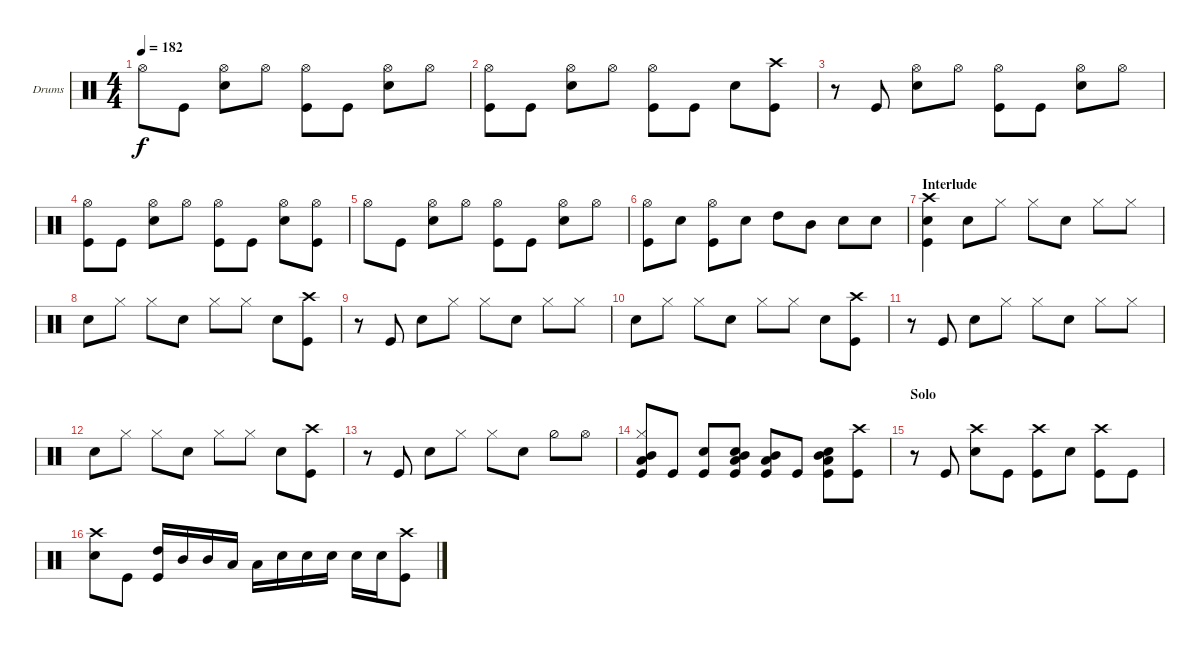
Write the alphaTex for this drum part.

\defaultSystemsLayout 4
\bracketExtendMode groupsimilarinstruments
\firstSystemTrackNameOrientation horizontal
\otherSystemsTrackNameOrientation horizontal
\track ("Drumkit" "Drums") {instrument percussion}
\staff {score}
\articulation defaults
\ts (4 4)
\tempo 182
\clef neutral
\ks c "Hi-Hat (open)".8{dy f} "Kick (hit)".8
("Snare (hit) 2" "Hi-Hat (open)").8 "Hi-Hat (open)".8 ("Kick (hit)" "Hi-Hat (open)").8 "Kick (hit)".8 ("Snare (hit) 2" "Hi-Hat (open)").8 "Hi-Hat (open)".8 |
("Kick (hit)" "Hi-Hat (open)").8 "Kick (hit)".8 ("Snare (hit) 2" "Hi-Hat (open)").8 "Hi-Hat (open)".8 ("Kick (hit)" "Hi-Hat (open)").8 "Kick (hit)".8 "Snare (hit) 2".8 ("Kick (hit)" "Crash high (hit)").8 |
r.8 "Kick (hit)".8 ("Snare (hit) 2" "Hi-Hat (open)").8 "Hi-Hat (open)".8 ("Kick (hit)" "Hi-Hat (open)").8 "Kick (hit)".8 ("Snare (hit) 2" "Hi-Hat (open)").8 "Hi-Hat (open)".8 |
("Kick (hit)" "Hi-Hat (open)").8 "Kick (hit)".8 ("Snare (hit) 2" "Hi-Hat (open)").8 "Hi-Hat (open)".8 ("Kick (hit)" "Hi-Hat (open)").8 "Kick (hit)".8 ("Snare (hit) 2" "Hi-Hat (open)").8 ("Kick (hit)" "Hi-Hat (open)").8 |
"Hi-Hat (open)".8 "Kick (hit)".8 ("Snare (hit) 2" "Hi-Hat (open)").8 "Hi-Hat (open)".8 ("Kick (hit)" "Hi-Hat (open)").8 "Kick (hit)".8 ("Snare (hit) 2" "Hi-Hat (open)").8 "Hi-Hat (open)".8 |
("Kick (hit)" "Hi-Hat (open)").8 "Snare (hit) 2".8 ("Kick (hit)" "Hi-Hat (open)").8 "Snare (hit) 2".8 "High Tom (hit)".8 "Mid Tom (hit)".8 "Snare (hit) 2".8 "Snare (hit) 2".8 |
\section ("" "Interlude")
("Kick (hit)" "Snare (hit) 2" "Crash high (hit)").4 "Snare (hit) 2".8 "Hi-Hat (closed)".8 "Hi-Hat (closed)".8 "Snare (hit) 2".8 "Hi-Hat (closed)".8 "Hi-Hat (closed)".8 |
"Snare (hit) 2".8 "Hi-Hat (closed)".8 "Hi-Hat (closed)".8 "Snare (hit) 2".8 "Hi-Hat (closed)".8 "Hi-Hat (closed)".8 "Snare (hit) 2".8 ("Kick (hit)" "Crash high (hit)").8 |
r.8 "Kick (hit)".8 "Snare (hit) 2".8 "Hi-Hat (closed)".8 "Hi-Hat (closed)".8 "Snare (hit) 2".8 "Hi-Hat (closed)".8 "Hi-Hat (closed)".8 |
"Snare (hit) 2".8 "Hi-Hat (closed)".8 "Hi-Hat (closed)".8 "Snare (hit) 2".8 "Hi-Hat (closed)".8 "Hi-Hat (closed)".8 "Snare (hit) 2".8 ("Kick (hit)" "Crash high (hit)").8 |
r.8 "Kick (hit)".8 "Snare (hit) 2".8 "Hi-Hat (closed)".8 "Hi-Hat (closed)".8 "Snare (hit) 2".8 "Hi-Hat (closed)".8 "Hi-Hat (closed)".8 |
"Snare (hit) 2".8 "Hi-Hat (closed)".8 "Hi-Hat (closed)".8 "Snare (hit) 2".8 "Hi-Hat (closed)".8 "Hi-Hat (closed)".8 "Snare (hit) 2".8 ("Kick (hit)" "Crash high (hit)").8 |
r.8 "Kick (hit)".8 "Snare (hit) 2".8 "Hi-Hat (closed)".8 "Hi-Hat (closed)".8 "Snare (hit) 2".8 "Hi-Hat (half)".8 "Hi-Hat (open)".8 |
("Mid Tom (hit)" "Low Tom (hit)" "Kick (hit)" "Hi-Hat (closed)").8 "Kick (hit)".8 ("Kick (hit)" "Snare (hit) 2").8 ("Kick (hit)" "Mid Tom (hit)" "Low Tom (hit)" "Snare (hit) 2").8 ("Kick (hit)" "Mid Tom (hit)" "Low Tom (hit)").8 "Kick (hit)".8 ("Kick (hit)" "Mid Tom (hit)" "Low Tom (hit)" "Snare (hit) 2").8 ("Kick (hit)" "Crash high (hit)").8 |
\section ("" "Solo")
r.8 "Kick (hit)".8 ("Snare (hit) 2" "Crash high (hit)").8 "Kick (hit)".8 ("Kick (hit)" "Crash high (hit)").8 "Snare (hit) 2".8 ("Kick (hit)" "Crash high (hit)").8 "Kick (hit)".8 |
("Snare (hit) 2" "Crash high (hit)").8 "Kick (hit)".8 ("Kick (hit)" "High Tom (hit)").16 "Mid Tom (hit)".16 "Mid Tom (hit)".16 "Low Tom (hit)".16 "Low Tom (hit)".16 "Snare (hit) 2".16 "Snare (hit) 2".16 "Snare (hit) 2".16 "Snare (hit) 2".16 "Snare (hit) 2".16 ("Kick (hit)" "Crash high (hit)").8
